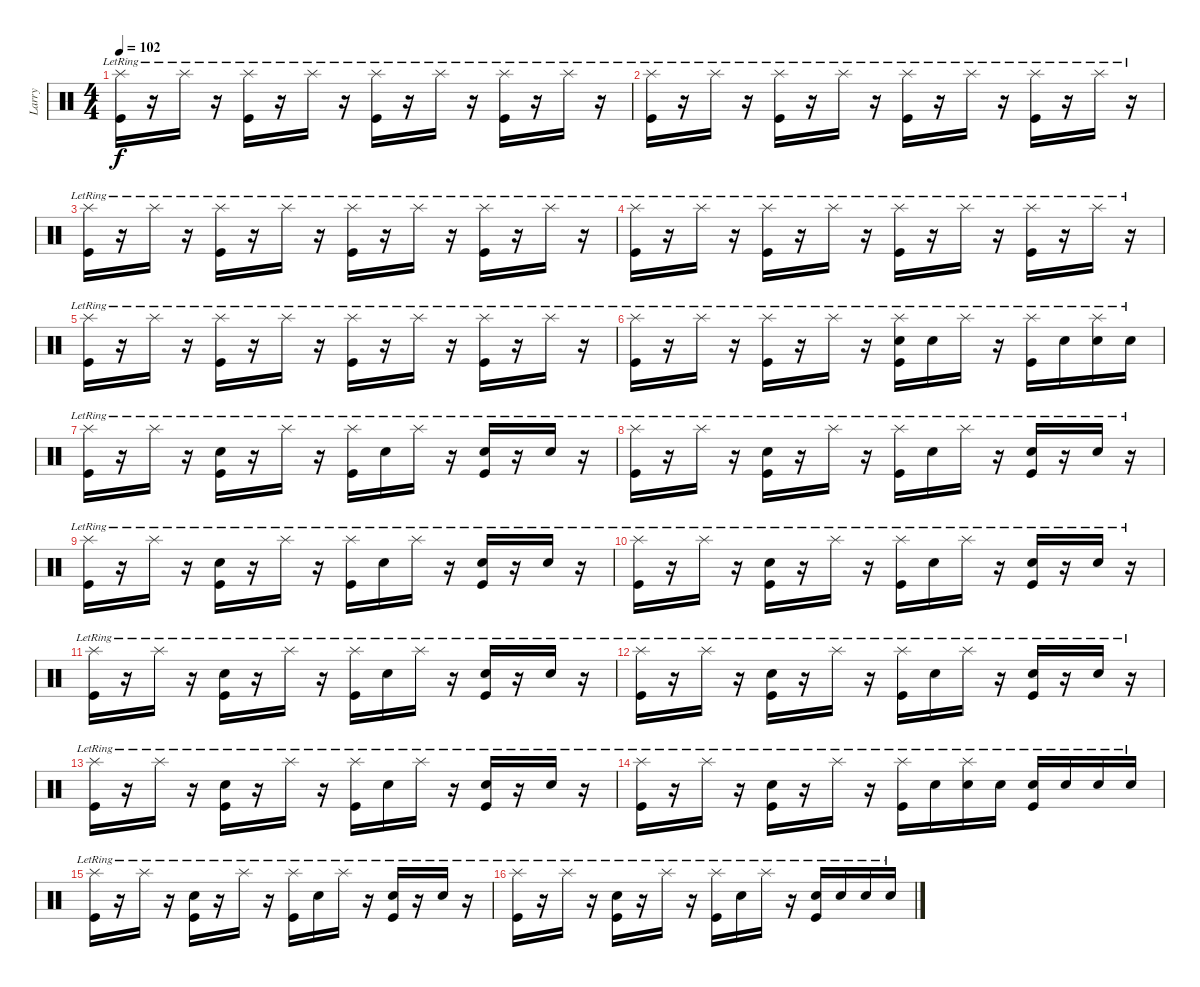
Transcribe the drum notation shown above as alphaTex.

\track ("Larry" "Larry") {instrument percussion}
\staff {score}
\articulation defaults
\ts (4 4)
\tempo 102
\clef neutral
\ks c
("Splash (hit)"{lr} "Kick (hit)"{lr}).16{dy f} r.16 "Splash (hit)"{lr}.16 r.16 ("Splash (hit)"{lr} "Kick (hit)"{lr}).16 r.16 "Splash (hit)"{lr}.16 r.16 ("Splash (hit)"{lr} "Kick (hit)"{lr}).16 r.16 "Splash (hit)"{lr}.16 r.16 ("Splash (hit)"{lr} "Kick (hit)"{lr}).16 r.16 "Splash (hit)"{lr}.16 r.16 |
("Splash (hit)"{lr} "Kick (hit)"{lr}).16 r.16 "Splash (hit)"{lr}.16 r.16 ("Splash (hit)"{lr} "Kick (hit)"{lr}).16 r.16 "Splash (hit)"{lr}.16 r.16 ("Splash (hit)"{lr} "Kick (hit)"{lr}).16 r.16 "Splash (hit)"{lr}.16 r.16 ("Splash (hit)"{lr} "Kick (hit)"{lr}).16 r.16 "Splash (hit)"{lr}.16 r.16 |
("Splash (hit)"{lr} "Kick (hit)"{lr}).16 r.16 "Splash (hit)"{lr}.16 r.16 ("Splash (hit)"{lr} "Kick (hit)"{lr}).16 r.16 "Splash (hit)"{lr}.16 r.16 ("Splash (hit)"{lr} "Kick (hit)"{lr}).16 r.16 "Splash (hit)"{lr}.16 r.16 ("Splash (hit)"{lr} "Kick (hit)"{lr}).16 r.16 "Splash (hit)"{lr}.16 r.16 |
("Splash (hit)"{lr} "Kick (hit)"{lr}).16 r.16 "Splash (hit)"{lr}.16 r.16 ("Splash (hit)"{lr} "Kick (hit)"{lr}).16 r.16 "Splash (hit)"{lr}.16 r.16 ("Splash (hit)"{lr} "Kick (hit)"{lr}).16 r.16 "Splash (hit)"{lr}.16 r.16 ("Splash (hit)"{lr} "Kick (hit)"{lr}).16 r.16 "Splash (hit)"{lr}.16 r.16 |
("Splash (hit)"{lr} "Kick (hit)"{lr}).16 r.16 "Splash (hit)"{lr}.16 r.16 ("Splash (hit)"{lr} "Kick (hit)"{lr}).16 r.16 "Splash (hit)"{lr}.16 r.16 ("Splash (hit)"{lr} "Kick (hit)"{lr}).16 r.16 "Splash (hit)"{lr}.16 r.16 ("Splash (hit)"{lr} "Kick (hit)"{lr}).16 r.16 "Splash (hit)"{lr}.16 r.16 |
("Splash (hit)"{lr} "Kick (hit)"{lr}).16 r.16 "Splash (hit)"{lr}.16 r.16 ("Splash (hit)"{lr} "Kick (hit)"{lr}).16 r.16 "Splash (hit)"{lr}.16 r.16 ("Snare (hit) 2"{lr} "Splash (hit)"{lr} "Kick (hit)"{lr}).16 "Snare (hit) 2"{lr}.16 "Splash (hit)"{lr}.16 r.16 ("Splash (hit)"{lr} "Kick (hit)"{lr}).16 "Snare (hit) 2"{lr}.16 ("Snare (hit) 2"{lr} "Splash (hit)"{lr}).16 "Snare (hit) 2"{lr}.16 |
("Splash (hit)"{lr} "Kick (hit)"{lr}).16 r.16 "Splash (hit)"{lr}.16 r.16 ("Snare (hit) 2"{lr} "Kick (hit)"{lr}).16 r.16 "Splash (hit)"{lr}.16 r.16 ("Splash (hit)"{lr} "Kick (hit)"{lr}).16 "Snare (hit) 2"{lr}.16 "Splash (hit)"{lr}.16 r.16 ("Snare (hit) 2"{lr} "Kick (hit)"{lr}).16 r.16 "Snare (hit) 2"{lr}.16 r.16 |
("Splash (hit)"{lr} "Kick (hit)"{lr}).16 r.16 "Splash (hit)"{lr}.16 r.16 ("Snare (hit) 2"{lr} "Kick (hit)"{lr}).16 r.16 "Splash (hit)"{lr}.16 r.16 ("Splash (hit)"{lr} "Kick (hit)"{lr}).16 "Snare (hit) 2"{lr}.16 "Splash (hit)"{lr}.16 r.16 ("Snare (hit) 2"{lr} "Kick (hit)"{lr}).16 r.16 "Snare (hit) 2"{lr}.16 r.16 |
("Splash (hit)"{lr} "Kick (hit)"{lr}).16 r.16 "Splash (hit)"{lr}.16 r.16 ("Snare (hit) 2"{lr} "Kick (hit)"{lr}).16 r.16 "Splash (hit)"{lr}.16 r.16 ("Splash (hit)"{lr} "Kick (hit)"{lr}).16 "Snare (hit) 2"{lr}.16 "Splash (hit)"{lr}.16 r.16 ("Snare (hit) 2"{lr} "Kick (hit)"{lr}).16 r.16 "Snare (hit) 2"{lr}.16 r.16 |
("Splash (hit)"{lr} "Kick (hit)"{lr}).16 r.16 "Splash (hit)"{lr}.16 r.16 ("Snare (hit) 2"{lr} "Kick (hit)"{lr}).16 r.16 "Splash (hit)"{lr}.16 r.16 ("Splash (hit)"{lr} "Kick (hit)"{lr}).16 "Snare (hit) 2"{lr}.16 "Splash (hit)"{lr}.16 r.16 ("Snare (hit) 2"{lr} "Kick (hit)"{lr}).16 r.16 "Snare (hit) 2"{lr}.16 r.16 |
("Splash (hit)"{lr} "Kick (hit)"{lr}).16 r.16 "Splash (hit)"{lr}.16 r.16 ("Snare (hit) 2"{lr} "Kick (hit)"{lr}).16 r.16 "Splash (hit)"{lr}.16 r.16 ("Splash (hit)"{lr} "Kick (hit)"{lr}).16 "Snare (hit) 2"{lr}.16 "Splash (hit)"{lr}.16 r.16 ("Snare (hit) 2"{lr} "Kick (hit)"{lr}).16 r.16 "Snare (hit) 2"{lr}.16 r.16 |
("Splash (hit)"{lr} "Kick (hit)"{lr}).16 r.16 "Splash (hit)"{lr}.16 r.16 ("Snare (hit) 2"{lr} "Kick (hit)"{lr}).16 r.16 "Splash (hit)"{lr}.16 r.16 ("Splash (hit)"{lr} "Kick (hit)"{lr}).16 "Snare (hit) 2"{lr}.16 "Splash (hit)"{lr}.16 r.16 ("Snare (hit) 2"{lr} "Kick (hit)"{lr}).16 r.16 "Snare (hit) 2"{lr}.16 r.16 |
("Splash (hit)"{lr} "Kick (hit)"{lr}).16 r.16 "Splash (hit)"{lr}.16 r.16 ("Snare (hit) 2"{lr} "Kick (hit)"{lr}).16 r.16 "Splash (hit)"{lr}.16 r.16 ("Splash (hit)"{lr} "Kick (hit)"{lr}).16 "Snare (hit) 2"{lr}.16 "Splash (hit)"{lr}.16 r.16 ("Snare (hit) 2"{lr} "Kick (hit)"{lr}).16 r.16 "Snare (hit) 2"{lr}.16 r.16 |
("Splash (hit)"{lr} "Kick (hit)"{lr}).16 r.16 "Splash (hit)"{lr}.16 r.16 ("Snare (hit) 2"{lr} "Kick (hit)"{lr}).16 r.16 "Splash (hit)"{lr}.16 r.16 ("Splash (hit)"{lr} "Kick (hit)"{lr}).16 "Snare (hit) 2"{lr}.16 ("Splash (hit)"{lr} "Snare (hit) 2"{lr}).16 "Snare (hit) 2"{lr}.16 ("Snare (hit) 2"{lr} "Kick (hit)"{lr}).16 "Snare (hit) 2"{lr}.16 "Snare (hit) 2"{lr}.16 "Snare (hit) 2"{lr}.16 |
("Splash (hit)"{lr} "Kick (hit)"{lr}).16 r.16 "Splash (hit)"{lr}.16 r.16 ("Snare (hit) 2"{lr} "Kick (hit)"{lr}).16 r.16 "Splash (hit)"{lr}.16 r.16 ("Splash (hit)"{lr} "Kick (hit)"{lr}).16 "Snare (hit) 2"{lr}.16 "Splash (hit)"{lr}.16 r.16 ("Snare (hit) 2"{lr} "Kick (hit)"{lr}).16 r.16 "Snare (hit) 2"{lr}.16 r.16 |
("Splash (hit)"{lr} "Kick (hit)"{lr}).16 r.16 "Splash (hit)"{lr}.16 r.16 ("Snare (hit) 2"{lr} "Kick (hit)"{lr}).16 r.16 "Splash (hit)"{lr}.16 r.16 ("Splash (hit)"{lr} "Kick (hit)"{lr}).16 "Snare (hit) 2"{lr}.16 "Splash (hit)"{lr}.16 r.16 ("Snare (hit) 2"{lr} "Kick (hit)"{lr}).16 "Snare (hit) 2"{lr}.16 "Snare (hit) 2"{lr}.16 "Snare (hit) 2"{lr}.16
